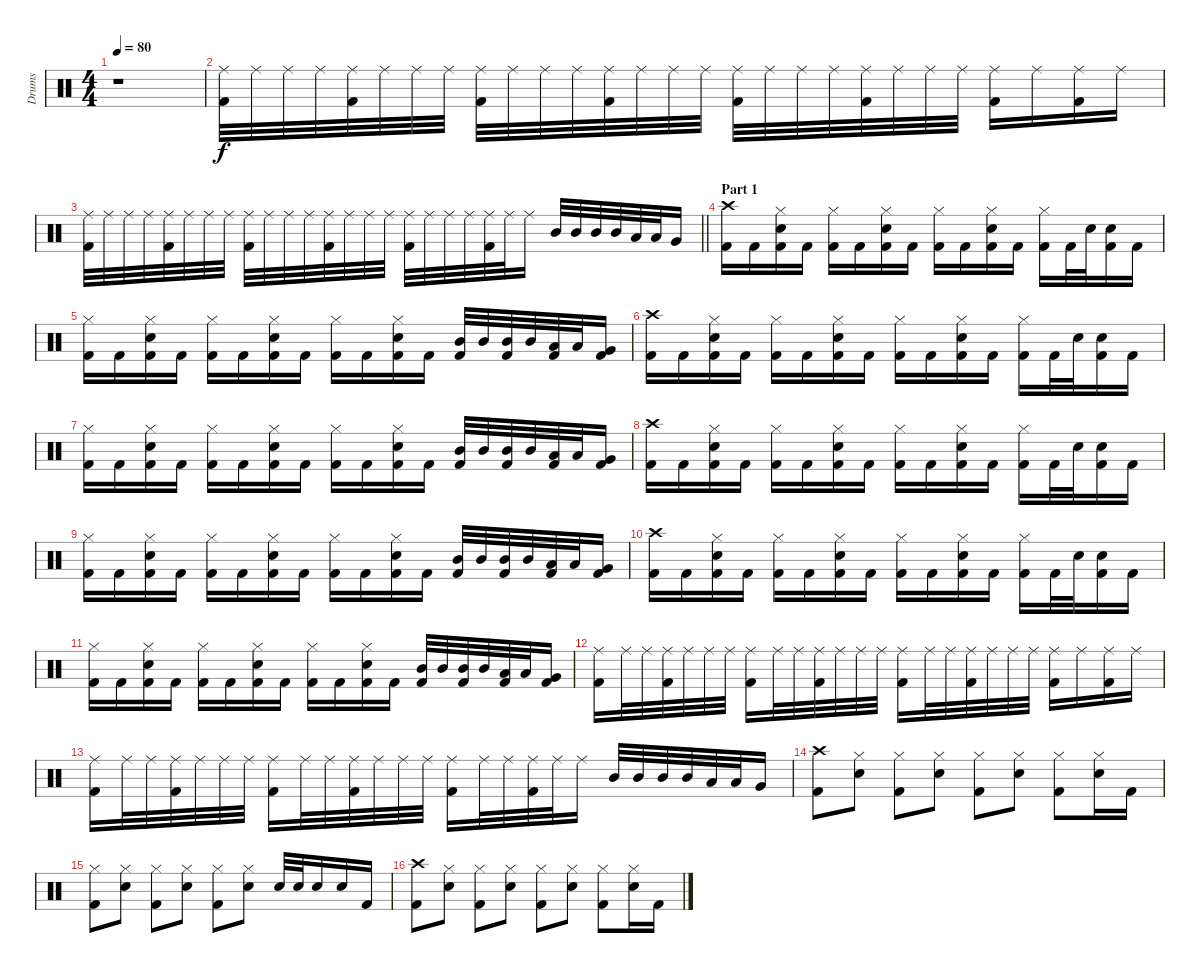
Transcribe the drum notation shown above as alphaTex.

\track ("Drums" "Drums") {instrument percussion}
\staff {score}
\articulation defaults
\ts (4 4)
\tempo 80
\clef neutral
\ks c
r.1{dy f} |
("Ride (middle)" "Kick (hit) 2").32 "Ride (middle)".32 "Ride (middle)".32 "Ride (middle)".32 ("Ride (middle)" "Kick (hit) 2").32 "Ride (middle)".32 "Ride (middle)".32 "Ride (middle)".32 ("Ride (middle)" "Kick (hit) 2").32 "Ride (middle)".32 "Ride (middle)".32 "Ride (middle)".32 ("Ride (middle)" "Kick (hit) 2").32 "Ride (middle)".32 "Ride (middle)".32 "Ride (middle)".32 ("Ride (middle)" "Kick (hit) 2").32 "Ride (middle)".32 "Ride (middle)".32 "Ride (middle)".32 ("Ride (middle)" "Kick (hit) 2").32 "Ride (middle)".32 "Ride (middle)".32 "Ride (middle)".32 ("Ride (middle)" "Kick (hit) 2").16 "Ride (middle)".16 ("Ride (middle)" "Kick (hit) 2").16 "Ride (middle)".16 |
\barLineRight lightlight
("Ride (middle)" "Kick (hit) 2").32 "Ride (middle)".32 "Ride (middle)".32 "Ride (middle)".32 ("Ride (middle)" "Kick (hit) 2").32 "Ride (middle)".32 "Ride (middle)".32 "Ride (middle)".32 ("Ride (middle)" "Kick (hit) 2").32 "Ride (middle)".32 "Ride (middle)".32 "Ride (middle)".32 ("Ride (middle)" "Kick (hit) 2").32 "Ride (middle)".32 "Ride (middle)".32 "Ride (middle)".32 ("Ride (middle)" "Kick (hit) 2").32 "Ride (middle)".32 "Ride (middle)".32 "Ride (middle)".32 ("Ride (middle)" "Kick (hit) 2").32 "Ride (middle)".32 "Ride (middle)".16 "Mid Tom (hit)".32 "Mid Tom (hit)".32 "Mid Tom (hit)".32 "Mid Tom (hit)".32 "Low Tom (hit)".32 "Low Tom (hit)".32 "Very Low Tom (hit)".16 |
\section ("" "Part 1")
("Crash high (hit)" "Kick (hit) 2").16 "Kick (hit) 2".16 ("Hi-Hat (closed)" "Electric Snare (hit)" "Kick (hit) 2").16 "Kick (hit) 2".16 ("Hi-Hat (closed)" "Kick (hit) 2").16 "Kick (hit) 2".16 ("Hi-Hat (closed)" "Electric Snare (hit)" "Kick (hit) 2").16 "Kick (hit) 2".16 ("Hi-Hat (closed)" "Kick (hit) 2").16 "Kick (hit) 2".16 ("Hi-Hat (closed)" "Electric Snare (hit)" "Kick (hit) 2").16 "Kick (hit) 2".16 ("Hi-Hat (closed)" "Kick (hit) 2").16 "Kick (hit) 2".32 "Electric Snare (hit)".32 ("Electric Snare (hit)" "Kick (hit) 2").16 "Kick (hit) 2".16 |
("Hi-Hat (closed)" "Kick (hit) 2").16 "Kick (hit) 2".16 ("Hi-Hat (closed)" "Electric Snare (hit)" "Kick (hit) 2").16 "Kick (hit) 2".16 ("Hi-Hat (closed)" "Kick (hit) 2").16 "Kick (hit) 2".16 ("Hi-Hat (closed)" "Electric Snare (hit)" "Kick (hit) 2").16 "Kick (hit) 2".16 ("Hi-Hat (closed)" "Kick (hit) 2").16 "Kick (hit) 2".16 ("Hi-Hat (closed)" "Electric Snare (hit)" "Kick (hit) 2").16 "Kick (hit) 2".16 ("Mid Tom (hit)" "Kick (hit) 2").32 "Mid Tom (hit)".32 ("Mid Tom (hit)" "Kick (hit) 2").32 "Mid Tom (hit)".32 ("Low Tom (hit)" "Kick (hit) 2").32 "Low Tom (hit)".32 ("Very Low Tom (hit)" "Kick (hit) 2").16 |
("Crash high (hit)" "Kick (hit) 2").16 "Kick (hit) 2".16 ("Hi-Hat (closed)" "Electric Snare (hit)" "Kick (hit) 2").16 "Kick (hit) 2".16 ("Hi-Hat (closed)" "Kick (hit) 2").16 "Kick (hit) 2".16 ("Hi-Hat (closed)" "Electric Snare (hit)" "Kick (hit) 2").16 "Kick (hit) 2".16 ("Hi-Hat (closed)" "Kick (hit) 2").16 "Kick (hit) 2".16 ("Hi-Hat (closed)" "Electric Snare (hit)" "Kick (hit) 2").16 "Kick (hit) 2".16 ("Hi-Hat (closed)" "Kick (hit) 2").16 "Kick (hit) 2".32 "Electric Snare (hit)".32 ("Electric Snare (hit)" "Kick (hit) 2").16 "Kick (hit) 2".16 |
("Hi-Hat (closed)" "Kick (hit) 2").16 "Kick (hit) 2".16 ("Hi-Hat (closed)" "Electric Snare (hit)" "Kick (hit) 2").16 "Kick (hit) 2".16 ("Hi-Hat (closed)" "Kick (hit) 2").16 "Kick (hit) 2".16 ("Hi-Hat (closed)" "Electric Snare (hit)" "Kick (hit) 2").16 "Kick (hit) 2".16 ("Hi-Hat (closed)" "Kick (hit) 2").16 "Kick (hit) 2".16 ("Hi-Hat (closed)" "Electric Snare (hit)" "Kick (hit) 2").16 "Kick (hit) 2".16 ("Mid Tom (hit)" "Kick (hit) 2").32 "Mid Tom (hit)".32 ("Mid Tom (hit)" "Kick (hit) 2").32 "Mid Tom (hit)".32 ("Low Tom (hit)" "Kick (hit) 2").32 "Low Tom (hit)".32 ("Very Low Tom (hit)" "Kick (hit) 2").16 |
("Crash high (hit)" "Kick (hit) 2").16 "Kick (hit) 2".16 ("Hi-Hat (closed)" "Electric Snare (hit)" "Kick (hit) 2").16 "Kick (hit) 2".16 ("Hi-Hat (closed)" "Kick (hit) 2").16 "Kick (hit) 2".16 ("Hi-Hat (closed)" "Electric Snare (hit)" "Kick (hit) 2").16 "Kick (hit) 2".16 ("Hi-Hat (closed)" "Kick (hit) 2").16 "Kick (hit) 2".16 ("Hi-Hat (closed)" "Electric Snare (hit)" "Kick (hit) 2").16 "Kick (hit) 2".16 ("Hi-Hat (closed)" "Kick (hit) 2").16 "Kick (hit) 2".32 "Electric Snare (hit)".32 ("Electric Snare (hit)" "Kick (hit) 2").16 "Kick (hit) 2".16 |
("Hi-Hat (closed)" "Kick (hit) 2").16 "Kick (hit) 2".16 ("Hi-Hat (closed)" "Electric Snare (hit)" "Kick (hit) 2").16 "Kick (hit) 2".16 ("Hi-Hat (closed)" "Kick (hit) 2").16 "Kick (hit) 2".16 ("Hi-Hat (closed)" "Electric Snare (hit)" "Kick (hit) 2").16 "Kick (hit) 2".16 ("Hi-Hat (closed)" "Kick (hit) 2").16 "Kick (hit) 2".16 ("Hi-Hat (closed)" "Electric Snare (hit)" "Kick (hit) 2").16 "Kick (hit) 2".16 ("Mid Tom (hit)" "Kick (hit) 2").32 "Mid Tom (hit)".32 ("Mid Tom (hit)" "Kick (hit) 2").32 "Mid Tom (hit)".32 ("Low Tom (hit)" "Kick (hit) 2").32 "Low Tom (hit)".32 ("Very Low Tom (hit)" "Kick (hit) 2").16 |
("Crash high (hit)" "Kick (hit) 2").16 "Kick (hit) 2".16 ("Hi-Hat (closed)" "Electric Snare (hit)" "Kick (hit) 2").16 "Kick (hit) 2".16 ("Hi-Hat (closed)" "Kick (hit) 2").16 "Kick (hit) 2".16 ("Hi-Hat (closed)" "Electric Snare (hit)" "Kick (hit) 2").16 "Kick (hit) 2".16 ("Hi-Hat (closed)" "Kick (hit) 2").16 "Kick (hit) 2".16 ("Hi-Hat (closed)" "Electric Snare (hit)" "Kick (hit) 2").16 "Kick (hit) 2".16 ("Hi-Hat (closed)" "Kick (hit) 2").16 "Kick (hit) 2".32 "Electric Snare (hit)".32 ("Electric Snare (hit)" "Kick (hit) 2").16 "Kick (hit) 2".16 |
("Hi-Hat (closed)" "Kick (hit) 2").16 "Kick (hit) 2".16 ("Hi-Hat (closed)" "Electric Snare (hit)" "Kick (hit) 2").16 "Kick (hit) 2".16 ("Hi-Hat (closed)" "Kick (hit) 2").16 "Kick (hit) 2".16 ("Hi-Hat (closed)" "Electric Snare (hit)" "Kick (hit) 2").16 "Kick (hit) 2".16 ("Hi-Hat (closed)" "Kick (hit) 2").16 "Kick (hit) 2".16 ("Hi-Hat (closed)" "Electric Snare (hit)" "Kick (hit) 2").16 "Kick (hit) 2".16 ("Mid Tom (hit)" "Kick (hit) 2").32 "Mid Tom (hit)".32 ("Mid Tom (hit)" "Kick (hit) 2").32 "Mid Tom (hit)".32 ("Low Tom (hit)" "Kick (hit) 2").32 "Low Tom (hit)".32 ("Very Low Tom (hit)" "Kick (hit) 2").16 |
("Ride (middle)" "Kick (hit) 2").16 "Ride (middle)".32 "Ride (middle)".32 ("Ride (middle)" "Kick (hit) 2").32 "Ride (middle)".32 "Ride (middle)".32 "Ride (middle)".32 ("Ride (middle)" "Kick (hit) 2").16 "Ride (middle)".32 "Ride (middle)".32 ("Ride (middle)" "Kick (hit) 2").32 "Ride (middle)".32 "Ride (middle)".32 "Ride (middle)".32 ("Ride (middle)" "Kick (hit) 2").16 "Ride (middle)".32 "Ride (middle)".32 ("Ride (middle)" "Kick (hit) 2").32 "Ride (middle)".32 "Ride (middle)".32 "Ride (middle)".32 ("Ride (middle)" "Kick (hit) 2").16 "Ride (middle)".16 ("Ride (middle)" "Kick (hit) 2").16 "Ride (middle)".16 |
("Ride (middle)" "Kick (hit) 2").16 "Ride (middle)".32 "Ride (middle)".32 ("Ride (middle)" "Kick (hit) 2").32 "Ride (middle)".32 "Ride (middle)".32 "Ride (middle)".32 ("Ride (middle)" "Kick (hit) 2").16 "Ride (middle)".32 "Ride (middle)".32 ("Ride (middle)" "Kick (hit) 2").32 "Ride (middle)".32 "Ride (middle)".32 "Ride (middle)".32 ("Ride (middle)" "Kick (hit) 2").16 "Ride (middle)".32 "Ride (middle)".32 ("Ride (middle)" "Kick (hit) 2").32 "Ride (middle)".32 "Ride (middle)".16 "Mid Tom (hit)".32 "Mid Tom (hit)".32 "Mid Tom (hit)".32 "Mid Tom (hit)".32 "Low Tom (hit)".32 "Low Tom (hit)".32 "Very Low Tom (hit)".16 |
("Crash high (hit)" "Kick (hit) 2").8 ("Hi-Hat (closed)" "Electric Snare (hit)").8 ("Hi-Hat (closed)" "Kick (hit) 2").8 ("Hi-Hat (closed)" "Electric Snare (hit)").8 ("Hi-Hat (closed)" "Kick (hit) 2").8 ("Hi-Hat (closed)" "Electric Snare (hit)").8 ("Hi-Hat (closed)" "Kick (hit) 2").8 ("Hi-Hat (closed)" "Electric Snare (hit)").16 "Kick (hit) 2".16 |
("Hi-Hat (closed)" "Kick (hit) 2").8 ("Hi-Hat (closed)" "Electric Snare (hit)").8 ("Hi-Hat (closed)" "Kick (hit) 2").8 ("Hi-Hat (closed)" "Electric Snare (hit)").8 ("Hi-Hat (closed)" "Kick (hit) 2").8 ("Hi-Hat (closed)" "Electric Snare (hit)").8 "Electric Snare (hit)".32 "Electric Snare (hit)".32 "Electric Snare (hit)".16 "Electric Snare (hit)".16 "Kick (hit) 2".16 |
("Crash high (hit)" "Kick (hit) 2").8 ("Hi-Hat (closed)" "Electric Snare (hit)").8 ("Hi-Hat (closed)" "Kick (hit) 2").8 ("Hi-Hat (closed)" "Electric Snare (hit)").8 ("Hi-Hat (closed)" "Kick (hit) 2").8 ("Hi-Hat (closed)" "Electric Snare (hit)").8 ("Hi-Hat (closed)" "Kick (hit) 2").8 ("Hi-Hat (closed)" "Electric Snare (hit)").16 "Kick (hit) 2".16
